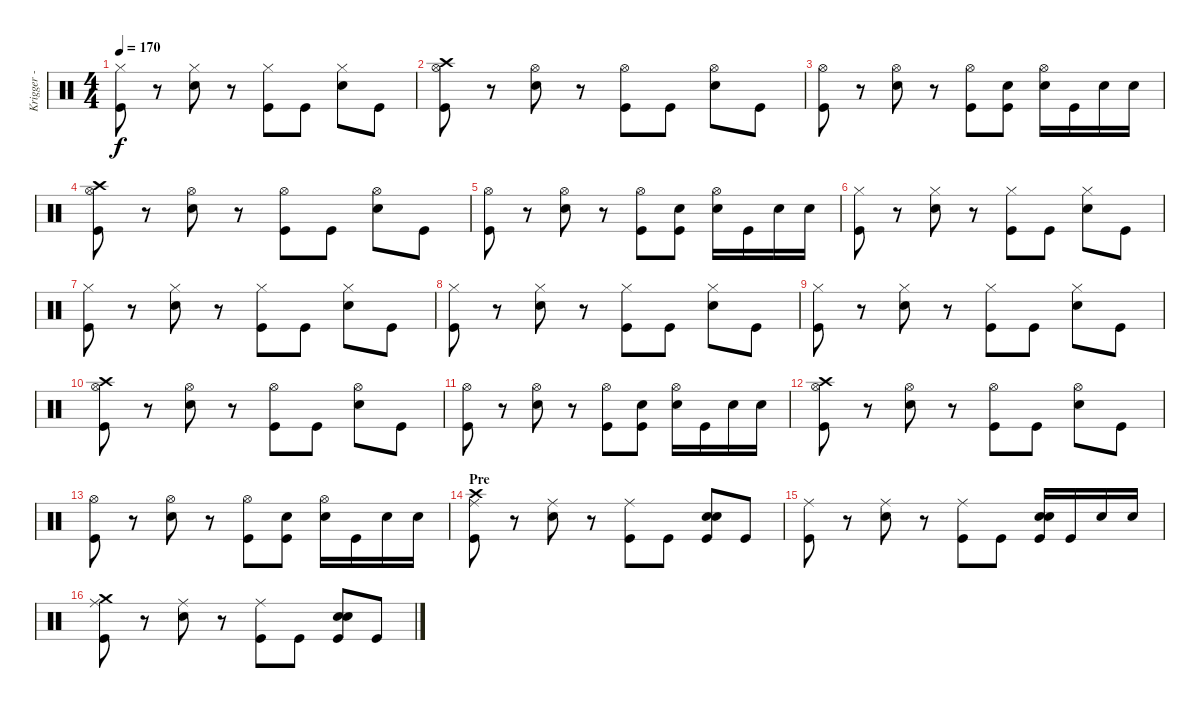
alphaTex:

\track ("Krigger - Drums" "Krigger - ") {instrument percussion}
\staff {score}
\articulation defaults
\ts (4 4)
\tempo 170
\clef neutral
\ks c
("Hi-Hat (closed)" "Kick (hit)").8{dy f} r.8 ("Hi-Hat (closed)" "Snare (hit) 2").8 r.8 ("Hi-Hat (closed)" "Kick (hit)").8 "Kick (hit)".8 ("Hi-Hat (closed)" "Snare (hit) 2").8 "Kick (hit)".8 |
("Hi-Hat (open)" "Crash high (hit)" "Kick (hit)").8 r.8 ("Hi-Hat (open)" "Snare (hit) 2").8 r.8 ("Hi-Hat (open)" "Kick (hit)").8 "Kick (hit)".8 ("Hi-Hat (open)" "Snare (hit) 2").8 "Kick (hit)".8 |
("Hi-Hat (open)" "Kick (hit)").8 r.8 ("Hi-Hat (open)" "Snare (hit) 2").8 r.8 ("Hi-Hat (open)" "Kick (hit)").8 ("Snare (hit) 2" "Kick (hit)").8 ("Hi-Hat (open)" "Snare (hit) 2").16 "Kick (hit)".16 "Snare (hit) 2".16 "Snare (hit) 2".16 |
("Hi-Hat (open)" "Crash high (hit)" "Kick (hit)").8 r.8 ("Hi-Hat (open)" "Snare (hit) 2").8 r.8 ("Hi-Hat (open)" "Kick (hit)").8 "Kick (hit)".8 ("Hi-Hat (open)" "Snare (hit) 2").8 "Kick (hit)".8 |
("Hi-Hat (open)" "Kick (hit)").8 r.8 ("Hi-Hat (open)" "Snare (hit) 2").8 r.8 ("Hi-Hat (open)" "Kick (hit)").8 ("Snare (hit) 2" "Kick (hit)").8 ("Hi-Hat (open)" "Snare (hit) 2").16 "Kick (hit)".16 "Snare (hit) 2".16 "Snare (hit) 2".16 |
("Hi-Hat (closed)" "Kick (hit)").8 r.8 ("Hi-Hat (closed)" "Snare (hit) 2").8 r.8 ("Hi-Hat (closed)" "Kick (hit)").8 "Kick (hit)".8 ("Hi-Hat (closed)" "Snare (hit) 2").8 "Kick (hit)".8 |
("Hi-Hat (closed)" "Kick (hit)").8 r.8 ("Hi-Hat (closed)" "Snare (hit) 2").8 r.8 ("Hi-Hat (closed)" "Kick (hit)").8 "Kick (hit)".8 ("Hi-Hat (closed)" "Snare (hit) 2").8 "Kick (hit)".8 |
("Hi-Hat (closed)" "Kick (hit)").8 r.8 ("Hi-Hat (closed)" "Snare (hit) 2").8 r.8 ("Hi-Hat (closed)" "Kick (hit)").8 "Kick (hit)".8 ("Hi-Hat (closed)" "Snare (hit) 2").8 "Kick (hit)".8 |
("Hi-Hat (closed)" "Kick (hit)").8 r.8 ("Hi-Hat (closed)" "Snare (hit) 2").8 r.8 ("Hi-Hat (closed)" "Kick (hit)").8 "Kick (hit)".8 ("Hi-Hat (closed)" "Snare (hit) 2").8 "Kick (hit)".8 |
("Hi-Hat (open)" "Crash high (hit)" "Kick (hit)").8 r.8 ("Hi-Hat (open)" "Snare (hit) 2").8 r.8 ("Hi-Hat (open)" "Kick (hit)").8 "Kick (hit)".8 ("Hi-Hat (open)" "Snare (hit) 2").8 "Kick (hit)".8 |
("Hi-Hat (open)" "Kick (hit)").8 r.8 ("Hi-Hat (open)" "Snare (hit) 2").8 r.8 ("Hi-Hat (open)" "Kick (hit)").8 ("Snare (hit) 2" "Kick (hit)").8 ("Hi-Hat (open)" "Snare (hit) 2").16 "Kick (hit)".16 "Snare (hit) 2".16 "Snare (hit) 2".16 |
("Hi-Hat (open)" "Crash high (hit)" "Kick (hit)").8 r.8 ("Hi-Hat (open)" "Snare (hit) 2").8 r.8 ("Hi-Hat (open)" "Kick (hit)").8 "Kick (hit)".8 ("Hi-Hat (open)" "Snare (hit) 2").8 "Kick (hit)".8 |
("Hi-Hat (open)" "Kick (hit)").8 r.8 ("Hi-Hat (open)" "Snare (hit) 2").8 r.8 ("Hi-Hat (open)" "Kick (hit)").8 ("Snare (hit) 2" "Kick (hit)").8 ("Hi-Hat (open)" "Snare (hit) 2").16 "Kick (hit)".16 "Snare (hit) 2".16 "Snare (hit) 2".16 |
\section ("" "Pre")
("Ride (middle)" "Crash high (hit)" "Kick (hit)").8 r.8 ("Ride (middle)" "Snare (hit) 2").8 r.8 ("Ride (middle)" "Kick (hit)").8 "Kick (hit)".8 ("Snare (hit)" "Snare (hit) 2" "Kick (hit)").8 "Kick (hit)".8 |
("Ride (middle)" "Kick (hit)").8 r.8 ("Ride (middle)" "Snare (hit) 2").8 r.8 ("Ride (middle)" "Kick (hit)").8 "Kick (hit)".8 ("Snare (hit)" "Snare (hit) 2" "Kick (hit)").16 "Kick (hit)".16 "Snare (hit) 2".16 "Snare (hit) 2".16 |
("Ride (middle)" "Crash medium (hit)" "Kick (hit)").8 r.8 ("Ride (middle)" "Snare (hit) 2").8 r.8 ("Ride (middle)" "Kick (hit)").8 "Kick (hit)".8 ("Snare (hit)" "Snare (hit) 2" "Kick (hit)").8 "Kick (hit)".8
